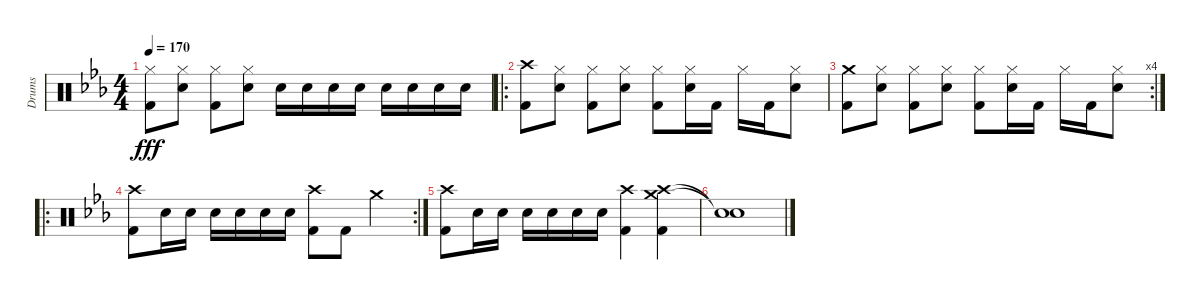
\track ("Drums" "Drums") {instrument percussion}
\staff {score}
\articulation defaults
\ts (4 4)
\tempo 170
\clef neutral
\ks eb
("Hi-Hat (closed)" "Kick (hit) 2").8{dy fff} ("Hi-Hat (closed)" "Electric Snare (hit)").8 ("Hi-Hat (closed)" "Kick (hit) 2").8 ("Hi-Hat (closed)" "Electric Snare (hit)").8 "Electric Snare (hit)".16 "Electric Snare (hit)".16 "Electric Snare (hit)".16 "Electric Snare (hit)".16 "Electric Snare (hit)".16 "Electric Snare (hit)".16 "Electric Snare (hit)".16 "Electric Snare (hit)".16 |
\ro
("Crash high (hit)" "Kick (hit) 2").8 ("Hi-Hat (closed)" "Electric Snare (hit)").8 ("Hi-Hat (closed)" "Kick (hit) 2").8 ("Hi-Hat (closed)" "Electric Snare (hit)").8 ("Hi-Hat (closed)" "Kick (hit) 2").8 ("Hi-Hat (closed)" "Electric Snare (hit)").16 "Kick (hit) 2".16 "Hi-Hat (closed)".16 "Kick (hit) 2".16 ("Hi-Hat (closed)" "Electric Snare (hit)").8 |
\rc 4
("Crash medium (hit)" "Kick (hit) 2").8 ("Hi-Hat (closed)" "Electric Snare (hit)").8 ("Hi-Hat (closed)" "Kick (hit) 2").8 ("Hi-Hat (closed)" "Electric Snare (hit)").8 ("Hi-Hat (closed)" "Kick (hit) 2").8 ("Hi-Hat (closed)" "Electric Snare (hit)").16 "Kick (hit) 2".16 "Hi-Hat (closed)".16 "Kick (hit) 2".16 ("Hi-Hat (closed)" "Electric Snare (hit)").8 |
\ro
\rc 2
("Crash high (hit)" "Kick (hit) 2").8 "Electric Snare (hit)".16 "Electric Snare (hit)".16 "Electric Snare (hit)".16 "Electric Snare (hit)".16 "Electric Snare (hit)".16 "Electric Snare (hit)".16 ("Crash high (hit)" "Kick (hit) 2").8 "Kick (hit) 2".8 "Crash medium (hit)".4 |
("Crash high (hit)" "Kick (hit) 2").8 "Electric Snare (hit)".16 "Electric Snare (hit)".16 "Electric Snare (hit)".16 "Electric Snare (hit)".16 "Electric Snare (hit)".16 "Electric Snare (hit)".16 ("Crash high (hit)" "Kick (hit) 2").4 ("Crash high (hit)" "Crash medium (hit)" "Kick (hit) 2").4 |
("Snare (hit)"{t} "Snare (hit)"{t}).1
